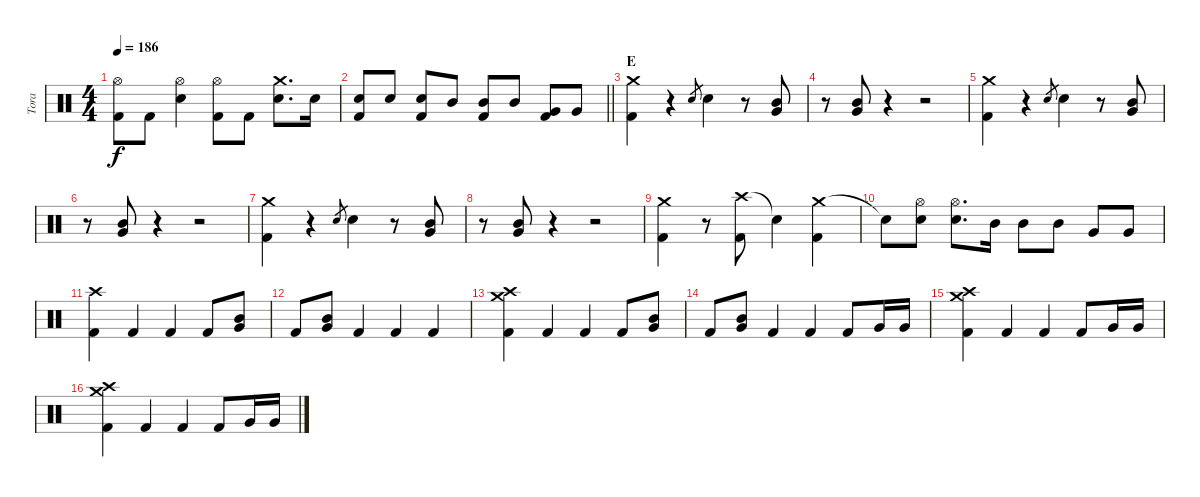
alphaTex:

\track ("Tora" "Tora") {instrument percussion}
\staff {score}
\articulation defaults
\ts (4 4)
\tempo 186
\clef neutral
\ks c
("Hi-Hat (open)" "Kick (hit) 2").8{dy f} "Kick (hit) 2".8 ("Hi-Hat (open)" "Electric Snare (hit)").4 ("Hi-Hat (open)" "Kick (hit) 2").8 "Kick (hit) 2".8 ("Crash medium (hit)" "Electric Snare (hit)").8{d} "Electric Snare (hit)".16 |
\barLineRight lightlight
("Electric Snare (hit)" "Kick (hit) 2").8 "Electric Snare (hit)".8 ("Electric Snare (hit)" "Kick (hit) 2").8 "Mid Tom (hit)".8 ("Mid Tom (hit)" "Kick (hit) 2").8 "Mid Tom (hit)".8 ("Very Low Tom (hit)" "Kick (hit) 2").8 "Very Low Tom (hit)".8 |
\section ("" "E")
("Crash medium (hit)" "Kick (hit) 2").4 r.4 "Electric Snare (hit)".8{gr} "Electric Snare (hit)".4 r.8 ("Mid Tom (hit)" "Very Low Tom (hit)").8 |
r.8 ("Mid Tom (hit)" "Very Low Tom (hit)").8 r.4 r.2 |
("Crash medium (hit)" "Kick (hit) 2").4 r.4 "Electric Snare (hit)".8{gr} "Electric Snare (hit)".4 r.8 ("Mid Tom (hit)" "Very Low Tom (hit)").8 |
r.8 ("Mid Tom (hit)" "Very Low Tom (hit)").8 r.4 r.2 |
("Crash medium (hit)" "Kick (hit) 2").4 r.4 "Electric Snare (hit)".8{gr} "Electric Snare (hit)".4 r.8 ("Mid Tom (hit)" "Very Low Tom (hit)").8 |
r.8 ("Mid Tom (hit)" "Very Low Tom (hit)").8 r.4 r.2 |
("Crash medium (hit)" "Kick (hit) 2").4 r.8 ("Crash high (hit)" "Kick (hit) 2").8 "Snare (hit)"{t}.4 ("Crash medium (hit)" "Kick (hit) 2").4 |
"Snare (hit)"{t}.8 ("Hi-Hat (open)" "Electric Snare (hit)").8 ("Hi-Hat (open)" "Electric Snare (hit)").8{d} "Mid Tom (hit)".16 "Mid Tom (hit)".8 "Mid Tom (hit)".8 "Very Low Tom (hit)".8 "Very Low Tom (hit)".8 |
("Crash high (hit)" "Kick (hit) 2").4 "Kick (hit) 2".4 "Kick (hit) 2".4 "Kick (hit) 2".8 ("Mid Tom (hit)" "Very Low Tom (hit)").8 |
"Kick (hit) 2".8 ("Mid Tom (hit)" "Very Low Tom (hit)").8 "Kick (hit) 2".4 "Kick (hit) 2".4 "Kick (hit) 2".4 |
("Crash medium (hit)" "Crash high (hit)" "Kick (hit) 2").4 "Kick (hit) 2".4 "Kick (hit) 2".4 "Kick (hit) 2".8 ("Mid Tom (hit)" "Very Low Tom (hit)").8 |
"Kick (hit) 2".8 ("Mid Tom (hit)" "Very Low Tom (hit)").8 "Kick (hit) 2".4 "Kick (hit) 2".4 "Kick (hit) 2".8 "Very Low Tom (hit)".16 "Very Low Tom (hit)".16 |
("Crash medium (hit)" "Crash high (hit)" "Kick (hit) 2").4 "Kick (hit) 2".4 "Kick (hit) 2".4 "Kick (hit) 2".8 "Very Low Tom (hit)".16 "Very Low Tom (hit)".16 |
("Crash medium (hit)" "Crash high (hit)" "Kick (hit) 2").4 "Kick (hit) 2".4 "Kick (hit) 2".4 "Kick (hit) 2".8 "Very Low Tom (hit)".16 "Very Low Tom (hit)".16
